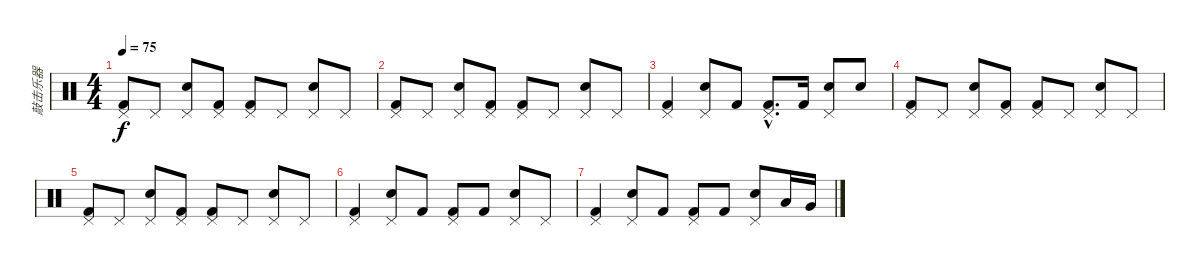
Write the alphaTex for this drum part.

\track ("敲击乐器" "敲击乐器") {instrument percussion}
\staff {score}
\articulation defaults
\ts (4 4)
\tempo 75
\clef neutral
\ks c
("Pedal Hi-Hat (hit)" "Kick (hit) 2").8{dy f} "Pedal Hi-Hat (hit)".8 ("Pedal Hi-Hat (hit)" "Metronome (bell)").8 ("Pedal Hi-Hat (hit)" "Kick (hit) 2").8 ("Pedal Hi-Hat (hit)" "Kick (hit) 2").8 "Pedal Hi-Hat (hit)".8 ("Pedal Hi-Hat (hit)" "Metronome (bell)").8 "Pedal Hi-Hat (hit)".8 |
("Pedal Hi-Hat (hit)" "Kick (hit) 2").8 "Pedal Hi-Hat (hit)".8 ("Pedal Hi-Hat (hit)" "Metronome (bell)").8 ("Pedal Hi-Hat (hit)" "Kick (hit) 2").8 ("Pedal Hi-Hat (hit)" "Kick (hit) 2").8 "Pedal Hi-Hat (hit)".8 ("Pedal Hi-Hat (hit)" "Metronome (bell)").8 "Pedal Hi-Hat (hit)".8 |
("Pedal Hi-Hat (hit)" "Kick (hit) 2").4 ("Pedal Hi-Hat (hit)" "Metronome (bell)").8 "Kick (hit) 2".8 ("Pedal Hi-Hat (hit)"{hac} "Kick (hit) 2"{hac}).8{d} "Kick (hit) 2".16 ("Pedal Hi-Hat (hit)" "Metronome (bell)").8 "Metronome (bell)".8 |
("Pedal Hi-Hat (hit)" "Kick (hit) 2").8 "Pedal Hi-Hat (hit)".8 ("Pedal Hi-Hat (hit)" "Metronome (bell)").8 ("Pedal Hi-Hat (hit)" "Kick (hit) 2").8 ("Pedal Hi-Hat (hit)" "Kick (hit) 2").8 "Pedal Hi-Hat (hit)".8 ("Pedal Hi-Hat (hit)" "Metronome (bell)").8 "Pedal Hi-Hat (hit)".8 |
("Pedal Hi-Hat (hit)" "Kick (hit) 2").8 "Pedal Hi-Hat (hit)".8 ("Pedal Hi-Hat (hit)" "Metronome (bell)").8 ("Pedal Hi-Hat (hit)" "Kick (hit) 2").8 ("Pedal Hi-Hat (hit)" "Kick (hit) 2").8 "Pedal Hi-Hat (hit)".8 ("Pedal Hi-Hat (hit)" "Metronome (bell)").8 "Pedal Hi-Hat (hit)".8 |
("Pedal Hi-Hat (hit)" "Kick (hit) 2").4 ("Pedal Hi-Hat (hit)" "Metronome (bell)").8 "Kick (hit) 2".8 ("Pedal Hi-Hat (hit)" "Kick (hit) 2").8 "Kick (hit) 2".8 ("Pedal Hi-Hat (hit)" "Metronome (bell)").8 "Pedal Hi-Hat (hit)".8 |
("Pedal Hi-Hat (hit)" "Kick (hit) 2").4 ("Pedal Hi-Hat (hit)" "Metronome (bell)").8 "Kick (hit) 2".8 ("Pedal Hi-Hat (hit)" "Kick (hit) 2").8 "Kick (hit) 2".8 ("Pedal Hi-Hat (hit)" "Metronome (bell)").8 "Low Tom (hit)".16 "Very Low Tom (hit)".16
